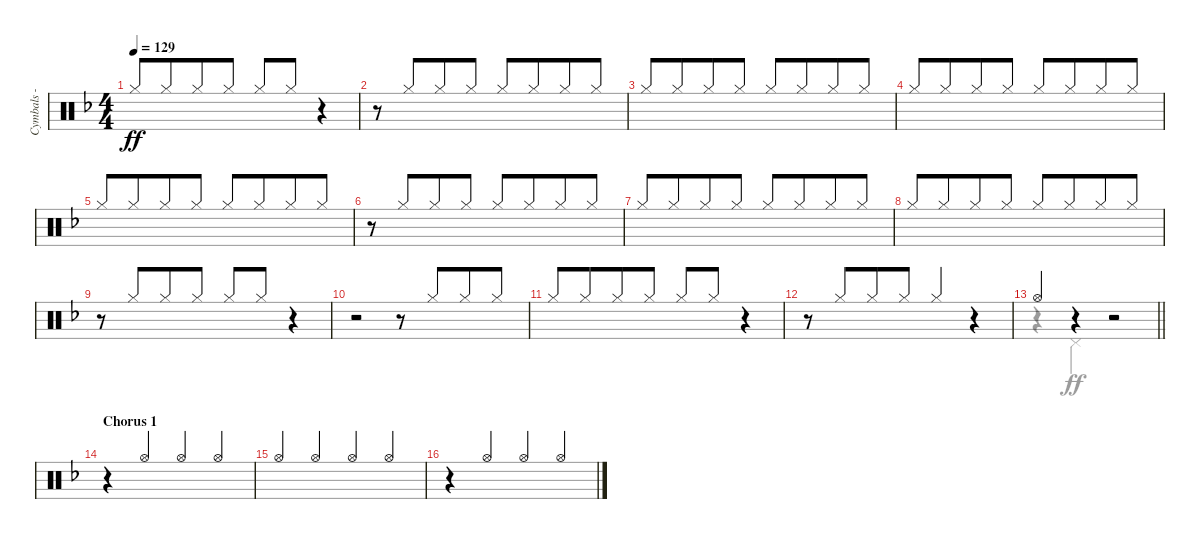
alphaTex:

\track ("Cymbals - hi-hat" "Cymbals - ") {instrument percussion}
\staff {score}
\articulation defaults
\voice
\ts (4 4)
\tempo 129
\clef neutral
\ks dminor "Hi-Hat (closed)".8{dy ff beam Up} "Hi-Hat (closed)".8{beam Up beam merge} "Hi-Hat (closed)".8{beam Up} "Hi-Hat (closed)".8{beam Up} "Hi-Hat (closed)".8{beam Up} "Hi-Hat (closed)".8{beam Up}
r.4 |
r.8 "Hi-Hat (closed)".8{beam Up beam merge} "Hi-Hat (closed)".8{beam Up} "Hi-Hat (closed)".8{beam Up} "Hi-Hat (closed)".8{beam Up} "Hi-Hat (closed)".8{beam Up beam merge} "Hi-Hat (closed)".8{beam Up} "Hi-Hat (closed)".8{beam Up} |
"Hi-Hat (closed)".8{beam Up} "Hi-Hat (closed)".8{beam Up beam merge} "Hi-Hat (closed)".8{beam Up} "Hi-Hat (closed)".8{beam Up} "Hi-Hat (closed)".8{beam Up} "Hi-Hat (closed)".8{beam Up beam merge} "Hi-Hat (closed)".8{beam Up} "Hi-Hat (closed)".8{beam Up} |
"Hi-Hat (closed)".8{beam Up} "Hi-Hat (closed)".8{beam Up beam merge} "Hi-Hat (closed)".8{beam Up} "Hi-Hat (closed)".8{beam Up} "Hi-Hat (closed)".8{beam Up} "Hi-Hat (closed)".8{beam Up beam merge} "Hi-Hat (closed)".8{beam Up} "Hi-Hat (closed)".8{beam Up} |
"Hi-Hat (closed)".8{beam Up} "Hi-Hat (closed)".8{beam Up beam merge} "Hi-Hat (closed)".8{beam Up} "Hi-Hat (closed)".8{beam Up} "Hi-Hat (closed)".8{beam Up} "Hi-Hat (closed)".8{beam Up beam merge} "Hi-Hat (closed)".8{beam Up} "Hi-Hat (closed)".8{beam Up} |
r.8 "Hi-Hat (closed)".8{beam Up beam merge} "Hi-Hat (closed)".8{beam Up} "Hi-Hat (closed)".8{beam Up} "Hi-Hat (closed)".8{beam Up} "Hi-Hat (closed)".8{beam Up beam merge} "Hi-Hat (closed)".8{beam Up} "Hi-Hat (closed)".8{beam Up} |
"Hi-Hat (closed)".8{beam Up} "Hi-Hat (closed)".8{beam Up beam merge} "Hi-Hat (closed)".8{beam Up} "Hi-Hat (closed)".8{beam Up} "Hi-Hat (closed)".8{beam Up} "Hi-Hat (closed)".8{beam Up beam merge} "Hi-Hat (closed)".8{beam Up} "Hi-Hat (closed)".8{beam Up} |
"Hi-Hat (closed)".8{beam Up} "Hi-Hat (closed)".8{beam Up beam merge} "Hi-Hat (closed)".8{beam Up} "Hi-Hat (closed)".8{beam Up} "Hi-Hat (closed)".8{beam Up} "Hi-Hat (closed)".8{beam Up beam merge} "Hi-Hat (closed)".8{beam Up} "Hi-Hat (closed)".8{beam Up} |
r.8 "Hi-Hat (closed)".8{beam Up beam merge} "Hi-Hat (closed)".8{beam Up} "Hi-Hat (closed)".8{beam Up} "Hi-Hat (closed)".8{beam Up} "Hi-Hat (closed)".8{beam Up} r.4 |
r.2 r.8 "Hi-Hat (closed)".8{beam Up beam merge} "Hi-Hat (closed)".8{beam Up} "Hi-Hat (closed)".8{beam Up} |
"Hi-Hat (closed)".8{beam Up} "Hi-Hat (closed)".8{beam Up beam merge} "Hi-Hat (closed)".8{beam Up} "Hi-Hat (closed)".8{beam Up} "Hi-Hat (closed)".8{beam Up} "Hi-Hat (closed)".8{beam Up beam merge} r.4 |
r.8 "Hi-Hat (closed)".8{beam Up beam merge} "Hi-Hat (closed)".8{beam Up} "Hi-Hat (closed)".8{beam Up} "Hi-Hat (closed)".4{beam Up} r.4 |
\barLineRight lightlight "Hi-Hat (open)".4{volume 13 beam Up}
r.4 r.2 |
\section ("" "Chorus 1")
r.4 "Hi-Hat (open)".4{beam Up} "Hi-Hat (open)".4{beam Up} "Hi-Hat (open)".4{beam Up} |
"Hi-Hat (open)".4{beam Up} "Hi-Hat (open)".4{beam Up} "Hi-Hat (open)".4{beam Up} "Hi-Hat (open)".4{beam Up} |
r.4 "Hi-Hat (open)".4{beam Up} "Hi-Hat (open)".4{beam Up} "Hi-Hat (open)".4{beam Up}
\voice
\clef neutral
\ottava regular
\simile none
\ks dminor
|
|
|
|
|
|
|
|
|
|
|
|
\barLineRight lightlight
r.4 "Pedal Hi-Hat (hit)".4{beam Down} r.2 |
|
|
